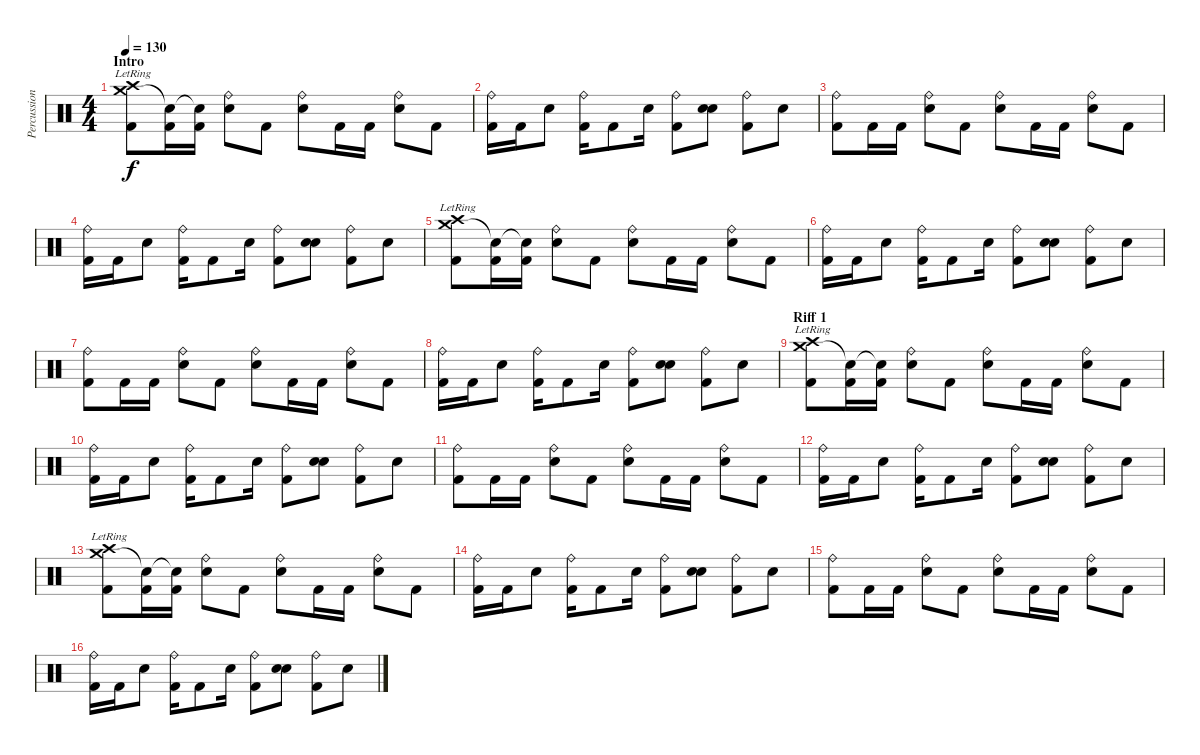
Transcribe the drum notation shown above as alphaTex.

\track ("Percussion" "Percussion") {instrument percussion}
\staff {score}
\articulation defaults
\ts (4 4)
\section ("" "Intro")
\tempo 130
\clef neutral
\ks c
("Crash medium (hit)" "Crash high (hit)"{lr} "Kick (hit) 2").8{dy f} ("Snare (hit)"{t} "Kick (hit) 2").16 ("Snare (hit)"{t} "Kick (hit) 2").16 ("Ride (bell)" "Snare (hit) 2").8 "Kick (hit) 2".8 ("Ride (bell)" "Snare (hit) 2").8 "Kick (hit) 2".16 "Kick (hit) 2".16 ("Ride (bell)" "Snare (hit) 2").8 "Kick (hit) 2".8 |
("Ride (bell)" "Kick (hit) 2").16 "Kick (hit) 2".16 "Snare (hit) 2".8 ("Ride (bell)" "Kick (hit) 2").16 "Kick (hit) 2".8 "Snare (hit) 2".16 ("Ride (bell)" "Kick (hit) 2").8 ("Snare (hit) 2" "Snare (hit) 2").8 ("Ride (bell)" "Kick (hit) 2").8 "Snare (hit) 2".8 |
("Ride (bell)" "Kick (hit) 2").8 "Kick (hit) 2".16 "Kick (hit) 2".16 ("Ride (bell)" "Snare (hit) 2").8 "Kick (hit) 2".8 ("Ride (bell)" "Snare (hit) 2").8 "Kick (hit) 2".16 "Kick (hit) 2".16 ("Ride (bell)" "Snare (hit) 2").8 "Kick (hit) 2".8 |
("Ride (bell)" "Kick (hit) 2").16 "Kick (hit) 2".16 "Snare (hit) 2".8 ("Ride (bell)" "Kick (hit) 2").16 "Kick (hit) 2".8 "Snare (hit) 2".16 ("Ride (bell)" "Kick (hit) 2").8 ("Snare (hit) 2" "Snare (hit) 2").8 ("Ride (bell)" "Kick (hit) 2").8 "Snare (hit) 2".8 |
("Crash medium (hit)" "Crash high (hit)"{lr} "Kick (hit) 2").8 ("Snare (hit)"{t} "Kick (hit) 2").16 ("Snare (hit)"{t} "Kick (hit) 2").16 ("Ride (bell)" "Snare (hit) 2").8 "Kick (hit) 2".8 ("Ride (bell)" "Snare (hit) 2").8 "Kick (hit) 2".16 "Kick (hit) 2".16 ("Ride (bell)" "Snare (hit) 2").8 "Kick (hit) 2".8 |
("Ride (bell)" "Kick (hit) 2").16 "Kick (hit) 2".16 "Snare (hit) 2".8 ("Ride (bell)" "Kick (hit) 2").16 "Kick (hit) 2".8 "Snare (hit) 2".16 ("Ride (bell)" "Kick (hit) 2").8 ("Snare (hit) 2" "Snare (hit) 2").8 ("Ride (bell)" "Kick (hit) 2").8 "Snare (hit) 2".8 |
("Ride (bell)" "Kick (hit) 2").8 "Kick (hit) 2".16 "Kick (hit) 2".16 ("Ride (bell)" "Snare (hit) 2").8 "Kick (hit) 2".8 ("Ride (bell)" "Snare (hit) 2").8 "Kick (hit) 2".16 "Kick (hit) 2".16 ("Ride (bell)" "Snare (hit) 2").8 "Kick (hit) 2".8 |
("Ride (bell)" "Kick (hit) 2").16 "Kick (hit) 2".16 "Snare (hit) 2".8 ("Ride (bell)" "Kick (hit) 2").16 "Kick (hit) 2".8 "Snare (hit) 2".16 ("Ride (bell)" "Kick (hit) 2").8 ("Snare (hit) 2" "Snare (hit) 2").8 ("Ride (bell)" "Kick (hit) 2").8 "Snare (hit) 2".8 |
\section ("" "Riff 1")
("Crash medium (hit)" "Crash high (hit)"{lr} "Kick (hit) 2").8 ("Snare (hit)"{t} "Kick (hit) 2").16 ("Snare (hit)"{t} "Kick (hit) 2").16 ("Ride (bell)" "Snare (hit) 2").8 "Kick (hit) 2".8 ("Ride (bell)" "Snare (hit) 2").8 "Kick (hit) 2".16 "Kick (hit) 2".16 ("Ride (bell)" "Snare (hit) 2").8 "Kick (hit) 2".8 |
("Ride (bell)" "Kick (hit) 2").16 "Kick (hit) 2".16 "Snare (hit) 2".8 ("Ride (bell)" "Kick (hit) 2").16 "Kick (hit) 2".8 "Snare (hit) 2".16 ("Ride (bell)" "Kick (hit) 2").8 ("Snare (hit) 2" "Snare (hit) 2").8 ("Ride (bell)" "Kick (hit) 2").8 "Snare (hit) 2".8 |
("Ride (bell)" "Kick (hit) 2").8 "Kick (hit) 2".16 "Kick (hit) 2".16 ("Ride (bell)" "Snare (hit) 2").8 "Kick (hit) 2".8 ("Ride (bell)" "Snare (hit) 2").8 "Kick (hit) 2".16 "Kick (hit) 2".16 ("Ride (bell)" "Snare (hit) 2").8 "Kick (hit) 2".8 |
("Ride (bell)" "Kick (hit) 2").16 "Kick (hit) 2".16 "Snare (hit) 2".8 ("Ride (bell)" "Kick (hit) 2").16 "Kick (hit) 2".8 "Snare (hit) 2".16 ("Ride (bell)" "Kick (hit) 2").8 ("Snare (hit) 2" "Snare (hit) 2").8 ("Ride (bell)" "Kick (hit) 2").8 "Snare (hit) 2".8 |
("Crash medium (hit)" "Crash high (hit)"{lr} "Kick (hit) 2").8 ("Snare (hit)"{t} "Kick (hit) 2").16 ("Snare (hit)"{t} "Kick (hit) 2").16 ("Ride (bell)" "Snare (hit) 2").8 "Kick (hit) 2".8 ("Ride (bell)" "Snare (hit) 2").8 "Kick (hit) 2".16 "Kick (hit) 2".16 ("Ride (bell)" "Snare (hit) 2").8 "Kick (hit) 2".8 |
("Ride (bell)" "Kick (hit) 2").16 "Kick (hit) 2".16 "Snare (hit) 2".8 ("Ride (bell)" "Kick (hit) 2").16 "Kick (hit) 2".8 "Snare (hit) 2".16 ("Ride (bell)" "Kick (hit) 2").8 ("Snare (hit) 2" "Snare (hit) 2").8 ("Ride (bell)" "Kick (hit) 2").8 "Snare (hit) 2".8 |
("Ride (bell)" "Kick (hit) 2").8 "Kick (hit) 2".16 "Kick (hit) 2".16 ("Ride (bell)" "Snare (hit) 2").8 "Kick (hit) 2".8 ("Ride (bell)" "Snare (hit) 2").8 "Kick (hit) 2".16 "Kick (hit) 2".16 ("Ride (bell)" "Snare (hit) 2").8 "Kick (hit) 2".8 |
("Ride (bell)" "Kick (hit) 2").16 "Kick (hit) 2".16 "Snare (hit) 2".8 ("Ride (bell)" "Kick (hit) 2").16 "Kick (hit) 2".8 "Snare (hit) 2".16 ("Ride (bell)" "Kick (hit) 2").8 ("Snare (hit) 2" "Snare (hit) 2").8 ("Ride (bell)" "Kick (hit) 2").8 "Snare (hit) 2".8
